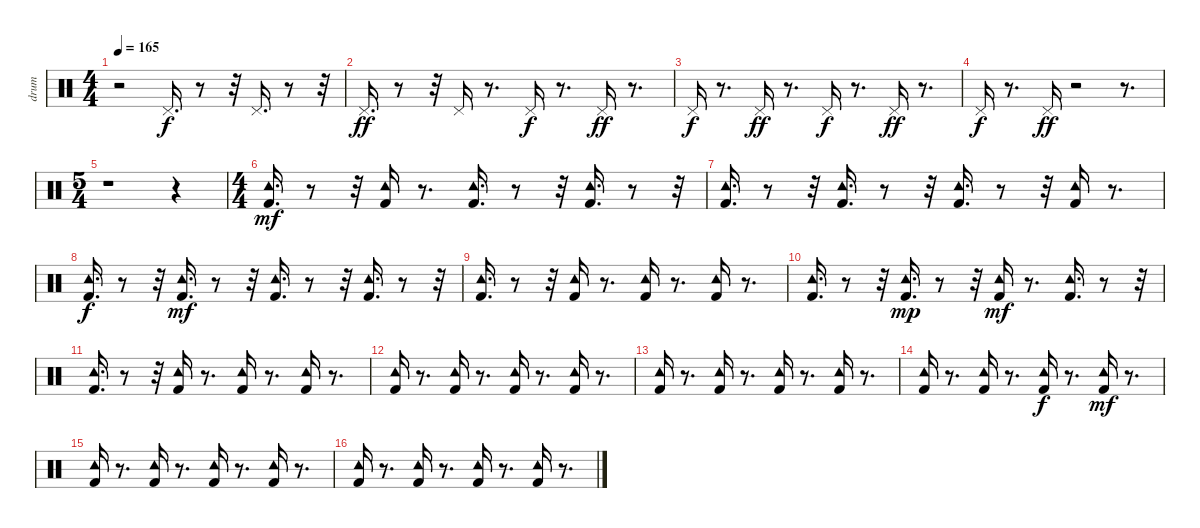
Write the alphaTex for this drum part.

\track ("drum" "drum") {instrument percussion}
\staff {score}
\articulation defaults
\ts (4 4)
\tempo 165
\clef neutral
\ks c
r.2{dy f} "Pedal Hi-Hat (hit)".16{d} r.8 r.32 "Pedal Hi-Hat (hit)".16{d} r.8 r.32 |
"Pedal Hi-Hat (hit)".16{d dy ff} r.8 r.32 "Pedal Hi-Hat (hit)".16 r.8{d} "Pedal Hi-Hat (hit)".16{dy f} r.8{d} "Pedal Hi-Hat (hit)".16{dy ff} r.8{d} |
"Pedal Hi-Hat (hit)".16{dy f} r.8{d} "Pedal Hi-Hat (hit)".16{dy ff} r.8{d} "Pedal Hi-Hat (hit)".16{dy f} r.8{d} "Pedal Hi-Hat (hit)".16{dy ff} r.8{d} |
"Pedal Hi-Hat (hit)".16{dy f} r.8{d} "Pedal Hi-Hat (hit)".16{dy ff} r.2 r.8{d} |
\ts (5 4)
r.1 r.4 |
\ts (4 4)
("Kick (hit) 2" "Tambourine (hit)").16{d dy mf} r.8 r.32 ("Kick (hit) 2" "Tambourine (hit)").16 r.8{d} ("Tambourine (hit)" "Kick (hit) 2").16{d} r.8 r.32 ("Tambourine (hit)" "Kick (hit) 2").16{d} r.8 r.32 |
("Kick (hit) 2" "Tambourine (hit)").16{d} r.8 r.32 ("Kick (hit) 2" "Tambourine (hit)").16{d} r.8 r.32 ("Kick (hit) 2" "Tambourine (hit)").16{d} r.8 r.32 ("Kick (hit) 2" "Tambourine (hit)").16 r.8{d} |
("Kick (hit) 2" "Tambourine (hit)").16{d dy f} r.8 r.32 ("Kick (hit) 2" "Tambourine (hit)").16{d dy mf} r.8 r.32 ("Kick (hit) 2" "Tambourine (hit)").16{d} r.8 r.32 ("Kick (hit) 2" "Tambourine (hit)").16{d} r.8 r.32 |
("Kick (hit) 2" "Tambourine (hit)").16{d} r.8 r.32 ("Kick (hit) 2" "Tambourine (hit)").16 r.8{d} ("Kick (hit) 2" "Tambourine (hit)").16 r.8{d} ("Kick (hit) 2" "Tambourine (hit)").16 r.8{d} |
("Tambourine (hit)" "Kick (hit) 2").16{d} r.8 r.32 ("Tambourine (hit)" "Kick (hit) 2").16{d dy mp} r.8 r.32 ("Kick (hit) 2" "Tambourine (hit)").16{dy mf} r.8{d} ("Tambourine (hit)" "Kick (hit) 2").16{d} r.8 r.32 |
("Kick (hit) 2" "Tambourine (hit)").16{d} r.8 r.32 ("Tambourine (hit)" "Kick (hit) 2").16 r.8{d} ("Tambourine (hit)" "Kick (hit) 2").16 r.8{d} ("Tambourine (hit)" "Kick (hit) 2").16 r.8{d} |
("Tambourine (hit)" "Kick (hit) 2").16 r.8{d} ("Kick (hit) 2" "Tambourine (hit)").16 r.8{d} ("Tambourine (hit)" "Kick (hit) 2").16 r.8{d} ("Tambourine (hit)" "Kick (hit) 2").16 r.8{d} |
("Kick (hit) 2" "Tambourine (hit)").16 r.8{d} ("Kick (hit) 2" "Tambourine (hit)").16 r.8{d} ("Tambourine (hit)" "Kick (hit) 2").16 r.8{d} ("Kick (hit) 2" "Tambourine (hit)").16 r.8{d} |
("Kick (hit) 2" "Tambourine (hit)").16 r.8{d} ("Kick (hit) 2" "Tambourine (hit)").16 r.8{d} ("Tambourine (hit)" "Kick (hit) 2").16{dy f} r.8{d} ("Kick (hit) 2" "Tambourine (hit)").16{dy mf} r.8{d} |
("Tambourine (hit)" "Kick (hit) 2").16 r.8{d} ("Kick (hit) 2" "Tambourine (hit)").16 r.8{d} ("Tambourine (hit)" "Kick (hit) 2").16 r.8{d} ("Tambourine (hit)" "Kick (hit) 2").16 r.8{d} |
("Tambourine (hit)" "Kick (hit) 2").16 r.8{d} ("Kick (hit) 2" "Tambourine (hit)").16 r.8{d} ("Kick (hit) 2" "Tambourine (hit)").16 r.8{d} ("Kick (hit) 2" "Tambourine (hit)").16 r.8{d}
